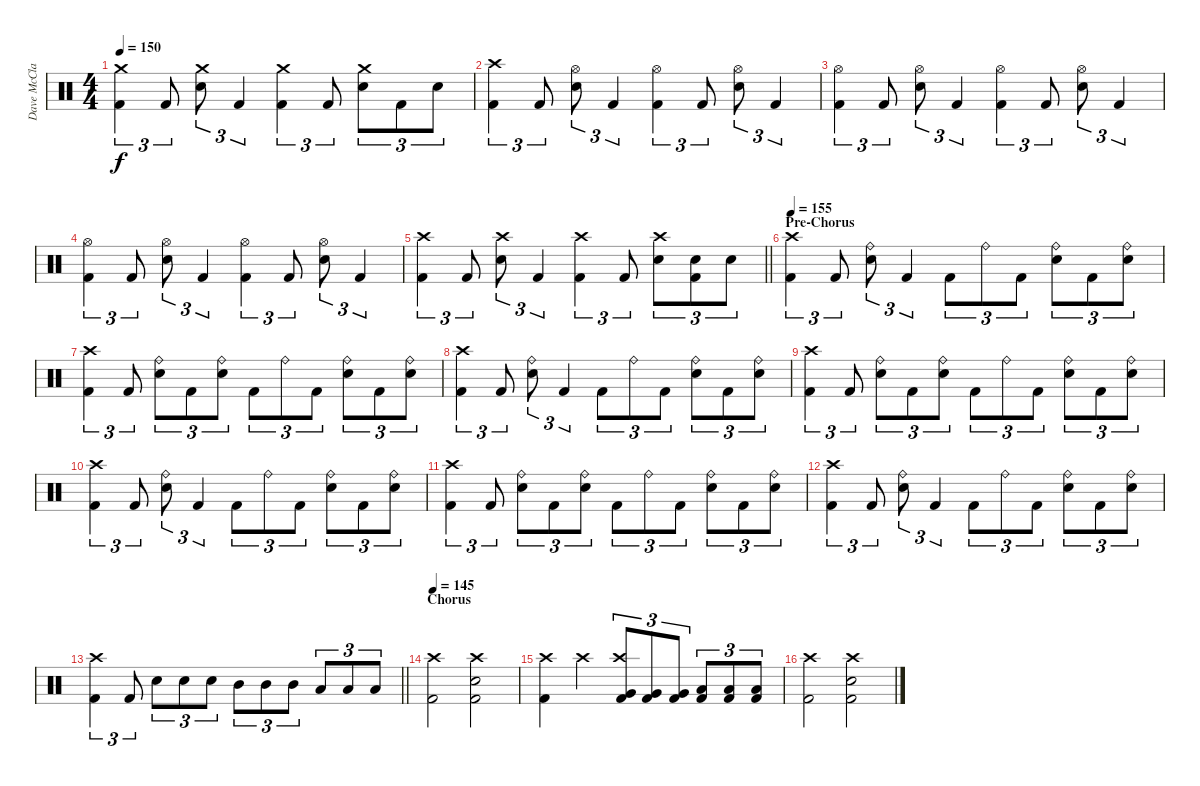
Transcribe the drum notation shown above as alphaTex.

\track ("Dave McClain" "Dave McCla") {instrument percussion}
\staff {score}
\articulation defaults
\ts (4 4)
\tempo 150
\clef neutral
\ks c
("Crash medium (hit)" "Kick (hit) 2").4{tu (3 2) dy f} "Kick (hit) 2".8{tu (3 2)} ("Crash medium (hit)" "Snare (hit) 2").8{tu (3 2)} "Kick (hit) 2".4{tu (3 2)} ("Crash medium (hit)" "Kick (hit) 2").4{tu (3 2)} "Kick (hit) 2".8{tu (3 2)} ("Crash medium (hit)" "Snare (hit) 2").8{tu (3 2)} "Kick (hit) 2".8{tu (3 2)} "Snare (hit) 2".8{tu (3 2)} |
("Crash high (hit)" "Kick (hit) 2").4{tu (3 2)} "Kick (hit) 2".8{tu (3 2)} ("Hi-Hat (open)" "Snare (hit) 2").8{tu (3 2)} "Kick (hit) 2".4{tu (3 2)} ("Hi-Hat (open)" "Kick (hit) 2").4{tu (3 2)} "Kick (hit) 2".8{tu (3 2)} ("Hi-Hat (open)" "Snare (hit) 2").8{tu (3 2)} "Kick (hit) 2".4{tu (3 2)} |
("Hi-Hat (open)" "Kick (hit) 2").4{tu (3 2)} "Kick (hit) 2".8{tu (3 2)} ("Hi-Hat (open)" "Snare (hit) 2").8{tu (3 2)} "Kick (hit) 2".4{tu (3 2)} ("Hi-Hat (open)" "Kick (hit) 2").4{tu (3 2)} "Kick (hit) 2".8{tu (3 2)} ("Hi-Hat (open)" "Snare (hit) 2").8{tu (3 2)} "Kick (hit) 2".4{tu (3 2)} |
("Hi-Hat (open)" "Kick (hit) 2").4{tu (3 2)} "Kick (hit) 2".8{tu (3 2)} ("Hi-Hat (open)" "Snare (hit) 2").8{tu (3 2)} "Kick (hit) 2".4{tu (3 2)} ("Hi-Hat (open)" "Kick (hit) 2").4{tu (3 2)} "Kick (hit) 2".8{tu (3 2)} ("Hi-Hat (open)" "Snare (hit) 2").8{tu (3 2)} "Kick (hit) 2".4{tu (3 2)} |
\barLineRight lightlight
("Crash high (hit)" "Kick (hit) 2").4{tu (3 2)} "Kick (hit) 2".8{tu (3 2)} ("Crash high (hit)" "Snare (hit) 2").8{tu (3 2)} "Kick (hit) 2".4{tu (3 2)} ("Crash high (hit)" "Kick (hit) 2").4{tu (3 2)} "Kick (hit) 2".8{tu (3 2)} ("Crash high (hit)" "Snare (hit) 2").8{tu (3 2)} ("Snare (hit) 2" "Kick (hit) 2").8{tu (3 2)} "Snare (hit) 2".8{tu (3 2)} |
\section ("" "Pre-Chorus")
\tempo 155
("Crash high (hit)" "Kick (hit) 2").4{tu (3 2)} "Kick (hit) 2".8{tu (3 2)} ("Ride (bell)" "Snare (hit) 2").8{tu (3 2)} "Kick (hit) 2".4{tu (3 2)} "Kick (hit) 2".8{tu (3 2)} "Ride (bell)".8{tu (3 2)} "Kick (hit) 2".8{tu (3 2)} ("Ride (bell)" "Snare (hit) 2").8{tu (3 2)} "Kick (hit) 2".8{tu (3 2)} ("Ride (bell)" "Snare (hit) 2").8{tu (3 2)} |
("Crash high (hit)" "Kick (hit) 2").4{tu (3 2)} "Kick (hit) 2".8{tu (3 2)} ("Ride (bell)" "Snare (hit) 2").8{tu (3 2)} "Kick (hit) 2".8{tu (3 2)} ("Ride (bell)" "Snare (hit) 2").8{tu (3 2)} "Kick (hit) 2".8{tu (3 2)} "Ride (bell)".8{tu (3 2)} "Kick (hit) 2".8{tu (3 2)} ("Ride (bell)" "Snare (hit) 2").8{tu (3 2)} "Kick (hit) 2".8{tu (3 2)} ("Ride (bell)" "Snare (hit) 2").8{tu (3 2)} |
("Crash high (hit)" "Kick (hit) 2").4{tu (3 2)} "Kick (hit) 2".8{tu (3 2)} ("Ride (bell)" "Snare (hit) 2").8{tu (3 2)} "Kick (hit) 2".4{tu (3 2)} "Kick (hit) 2".8{tu (3 2)} "Ride (bell)".8{tu (3 2)} "Kick (hit) 2".8{tu (3 2)} ("Ride (bell)" "Snare (hit) 2").8{tu (3 2)} "Kick (hit) 2".8{tu (3 2)} ("Ride (bell)" "Snare (hit) 2").8{tu (3 2)} |
("Crash high (hit)" "Kick (hit) 2").4{tu (3 2)} "Kick (hit) 2".8{tu (3 2)} ("Ride (bell)" "Snare (hit) 2").8{tu (3 2)} "Kick (hit) 2".8{tu (3 2)} ("Ride (bell)" "Snare (hit) 2").8{tu (3 2)} "Kick (hit) 2".8{tu (3 2)} "Ride (bell)".8{tu (3 2)} "Kick (hit) 2".8{tu (3 2)} ("Ride (bell)" "Snare (hit) 2").8{tu (3 2)} "Kick (hit) 2".8{tu (3 2)} ("Ride (bell)" "Snare (hit) 2").8{tu (3 2)} |
("Crash high (hit)" "Kick (hit) 2").4{tu (3 2)} "Kick (hit) 2".8{tu (3 2)} ("Ride (bell)" "Snare (hit) 2").8{tu (3 2)} "Kick (hit) 2".4{tu (3 2)} "Kick (hit) 2".8{tu (3 2)} "Ride (bell)".8{tu (3 2)} "Kick (hit) 2".8{tu (3 2)} ("Ride (bell)" "Snare (hit) 2").8{tu (3 2)} "Kick (hit) 2".8{tu (3 2)} ("Ride (bell)" "Snare (hit) 2").8{tu (3 2)} |
("Crash high (hit)" "Kick (hit) 2").4{tu (3 2)} "Kick (hit) 2".8{tu (3 2)} ("Ride (bell)" "Snare (hit) 2").8{tu (3 2)} "Kick (hit) 2".8{tu (3 2)} ("Ride (bell)" "Snare (hit) 2").8{tu (3 2)} "Kick (hit) 2".8{tu (3 2)} "Ride (bell)".8{tu (3 2)} "Kick (hit) 2".8{tu (3 2)} ("Ride (bell)" "Snare (hit) 2").8{tu (3 2)} "Kick (hit) 2".8{tu (3 2)} ("Ride (bell)" "Snare (hit) 2").8{tu (3 2)} |
("Crash high (hit)" "Kick (hit) 2").4{tu (3 2)} "Kick (hit) 2".8{tu (3 2)} ("Ride (bell)" "Snare (hit) 2").8{tu (3 2)} "Kick (hit) 2".4{tu (3 2)} "Kick (hit) 2".8{tu (3 2)} "Ride (bell)".8{tu (3 2)} "Kick (hit) 2".8{tu (3 2)} ("Ride (bell)" "Snare (hit) 2").8{tu (3 2)} "Kick (hit) 2".8{tu (3 2)} ("Ride (bell)" "Snare (hit) 2").8{tu (3 2)} |
\barLineRight lightlight
("Crash high (hit)" "Kick (hit) 2").4{tu (3 2)} "Kick (hit) 2".8{tu (3 2)} "Snare (hit) 2".8{tu (3 2)} "Snare (hit) 2".8{tu (3 2)} "Snare (hit) 2".8{tu (3 2)} "Mid Tom (hit)".8{tu (3 2)} "Mid Tom (hit)".8{tu (3 2)} "Mid Tom (hit)".8{tu (3 2)} "Low Tom (hit)".8{tu (3 2)} "Low Tom (hit)".8{tu (3 2)} "Low Tom (hit)".8{tu (3 2)} |
\section ("" "Chorus")
\tempo 145
("Crash high (hit)" "Kick (hit) 2").2 ("Crash high (hit)" "Snare (hit) 2" "Kick (hit) 2").2 |
("Crash high (hit)" "Kick (hit) 2").4 "Crash high (hit)".4 ("Crash high (hit)" "Very Low Tom (hit)" "Kick (hit) 2").8{tu (3 2)} ("Very Low Tom (hit)" "Kick (hit) 2").8{tu (3 2)} ("Very Low Tom (hit)" "Kick (hit) 2").8{tu (3 2)} ("Low Tom (hit)" "Kick (hit) 2").8{tu (3 2)} ("Low Tom (hit)" "Kick (hit) 2").8{tu (3 2)} ("Low Tom (hit)" "Kick (hit) 2").8{tu (3 2)} |
("Crash high (hit)" "Kick (hit) 2").2 ("Crash high (hit)" "Snare (hit) 2" "Kick (hit) 2").2
